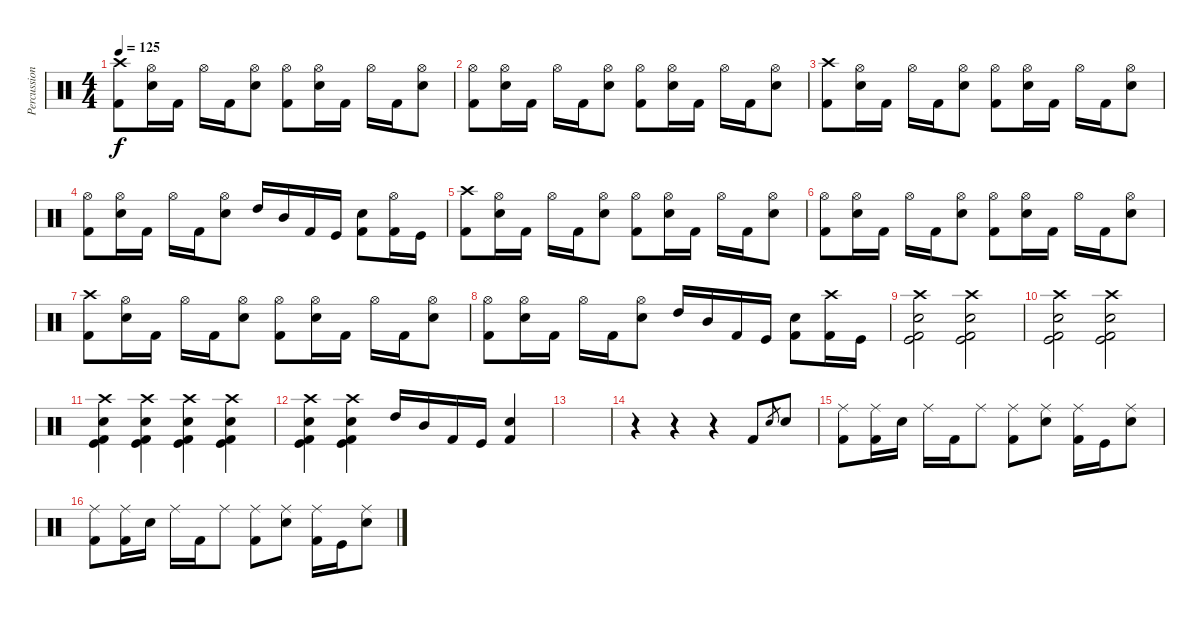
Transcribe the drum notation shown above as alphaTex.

\track ("Percussion" "Percussion") {instrument percussion}
\staff {score}
\articulation defaults
\ts (4 4)
\tempo 125
\clef neutral
\ks c
("Crash high (hit)" "Kick (hit) 2").8{dy f} ("Hi-Hat (open)" "Electric Snare (hit)").16 "Kick (hit) 2".16 "Hi-Hat (open)".16 "Kick (hit) 2".16 ("Hi-Hat (open)" "Electric Snare (hit)").8 ("Hi-Hat (open)" "Kick (hit) 2").8 ("Hi-Hat (open)" "Electric Snare (hit)").16 "Kick (hit) 2".16 "Hi-Hat (open)".16 "Kick (hit) 2".16 ("Hi-Hat (open)" "Electric Snare (hit)").8 |
("Hi-Hat (open)" "Kick (hit) 2").8 ("Hi-Hat (open)" "Electric Snare (hit)").16 "Kick (hit) 2".16 "Hi-Hat (open)".16 "Kick (hit) 2".16 ("Hi-Hat (open)" "Electric Snare (hit)").8 ("Hi-Hat (open)" "Kick (hit) 2").8 ("Hi-Hat (open)" "Electric Snare (hit)").16 "Kick (hit) 2".16 "Hi-Hat (open)".16 "Kick (hit) 2".16 ("Hi-Hat (open)" "Electric Snare (hit)").8 |
("Crash high (hit)" "Kick (hit) 2").8 ("Hi-Hat (open)" "Electric Snare (hit)").16 "Kick (hit) 2".16 "Hi-Hat (open)".16 "Kick (hit) 2".16 ("Hi-Hat (open)" "Electric Snare (hit)").8 ("Hi-Hat (open)" "Kick (hit) 2").8 ("Hi-Hat (open)" "Electric Snare (hit)").16 "Kick (hit) 2".16 "Hi-Hat (open)".16 "Kick (hit) 2".16 ("Hi-Hat (open)" "Electric Snare (hit)").8 |
("Hi-Hat (open)" "Kick (hit) 2").8 ("Hi-Hat (open)" "Electric Snare (hit)").16 "Kick (hit) 2".16 "Hi-Hat (open)".16 "Kick (hit) 2".16 ("Hi-Hat (open)" "Electric Snare (hit)").8 "High Tom (hit)".16 "Mid Tom (hit)".16 "Kick (hit) 2".16 "Kick (hit)".16 ("Electric Snare (hit)" "Kick (hit) 2").8 ("Hi-Hat (open)" "Kick (hit) 2").16 "Kick (hit)".16 |
("Crash high (hit)" "Kick (hit) 2").8 ("Hi-Hat (open)" "Electric Snare (hit)").16 "Kick (hit) 2".16 "Hi-Hat (open)".16 "Kick (hit) 2".16 ("Hi-Hat (open)" "Electric Snare (hit)").8 ("Hi-Hat (open)" "Kick (hit) 2").8 ("Hi-Hat (open)" "Electric Snare (hit)").16 "Kick (hit) 2".16 "Hi-Hat (open)".16 "Kick (hit) 2".16 ("Hi-Hat (open)" "Electric Snare (hit)").8 |
("Hi-Hat (open)" "Kick (hit) 2").8 ("Hi-Hat (open)" "Electric Snare (hit)").16 "Kick (hit) 2".16 "Hi-Hat (open)".16 "Kick (hit) 2".16 ("Hi-Hat (open)" "Electric Snare (hit)").8 ("Hi-Hat (open)" "Kick (hit) 2").8 ("Hi-Hat (open)" "Electric Snare (hit)").16 "Kick (hit) 2".16 "Hi-Hat (open)".16 "Kick (hit) 2".16 ("Hi-Hat (open)" "Electric Snare (hit)").8 |
("Crash high (hit)" "Kick (hit) 2").8 ("Hi-Hat (open)" "Electric Snare (hit)").16 "Kick (hit) 2".16 "Hi-Hat (open)".16 "Kick (hit) 2".16 ("Hi-Hat (open)" "Electric Snare (hit)").8 ("Hi-Hat (open)" "Kick (hit) 2").8 ("Hi-Hat (open)" "Electric Snare (hit)").16 "Kick (hit) 2".16 "Hi-Hat (open)".16 "Kick (hit) 2".16 ("Hi-Hat (open)" "Electric Snare (hit)").8 |
("Hi-Hat (open)" "Kick (hit) 2").8 ("Hi-Hat (open)" "Electric Snare (hit)").16 "Kick (hit) 2".16 "Hi-Hat (open)".16 "Kick (hit) 2".16 ("Hi-Hat (open)" "Electric Snare (hit)").8 "High Tom (hit)".16 "Mid Tom (hit)".16 "Kick (hit) 2".16 "Kick (hit)".16 ("Electric Snare (hit)" "Kick (hit) 2").8 ("Crash high (hit)" "Kick (hit) 2").16 "Kick (hit)".16 |
("Crash high (hit)" "Electric Snare (hit)" "Kick (hit)" "Kick (hit) 2").2 ("Crash high (hit)" "Electric Snare (hit)" "Kick (hit)" "Kick (hit) 2").2 |
("Crash high (hit)" "Electric Snare (hit)" "Kick (hit)" "Kick (hit) 2").2 ("Crash high (hit)" "Electric Snare (hit)" "Kick (hit)" "Kick (hit) 2").2 |
("Crash high (hit)" "Electric Snare (hit)" "Kick (hit)" "Kick (hit) 2").4 ("Crash high (hit)" "Electric Snare (hit)" "Kick (hit)" "Kick (hit) 2").4 ("Crash high (hit)" "Electric Snare (hit)" "Kick (hit)" "Kick (hit) 2").4 ("Crash high (hit)" "Electric Snare (hit)" "Kick (hit)" "Kick (hit) 2").4 |
("Crash high (hit)" "Electric Snare (hit)" "Kick (hit)" "Kick (hit) 2").4 ("Crash high (hit)" "Electric Snare (hit)" "Kick (hit)" "Kick (hit) 2").4 "High Tom (hit)".16 "Mid Tom (hit)".16 "Kick (hit) 2".16 "Kick (hit)".16 ("Electric Snare (hit)" "Kick (hit) 2").4 |
|
r.4 r.4 r.4 "Kick (hit) 2".8 "Electric Snare (hit)".8{gr} "Electric Snare (hit)".8 |
("Ride (middle)" "Kick (hit) 2").8 ("Ride (middle)" "Kick (hit) 2").16 "Electric Snare (hit)".16 "Ride (middle)".16 "Kick (hit) 2".16 "Ride (middle)".8 ("Ride (middle)" "Kick (hit) 2").8 ("Ride (middle)" "Electric Snare (hit)").8 ("Ride (middle)" "Kick (hit) 2").16 "Kick (hit)".16 ("Ride (middle)" "Electric Snare (hit)").8 |
("Ride (middle)" "Kick (hit) 2").8 ("Ride (middle)" "Kick (hit) 2").16 "Electric Snare (hit)".16 "Ride (middle)".16 "Kick (hit) 2".16 "Ride (middle)".8 ("Ride (middle)" "Kick (hit) 2").8 ("Ride (middle)" "Electric Snare (hit)").8 ("Ride (middle)" "Kick (hit) 2").16 "Kick (hit)".16 ("Ride (middle)" "Electric Snare (hit)").8
